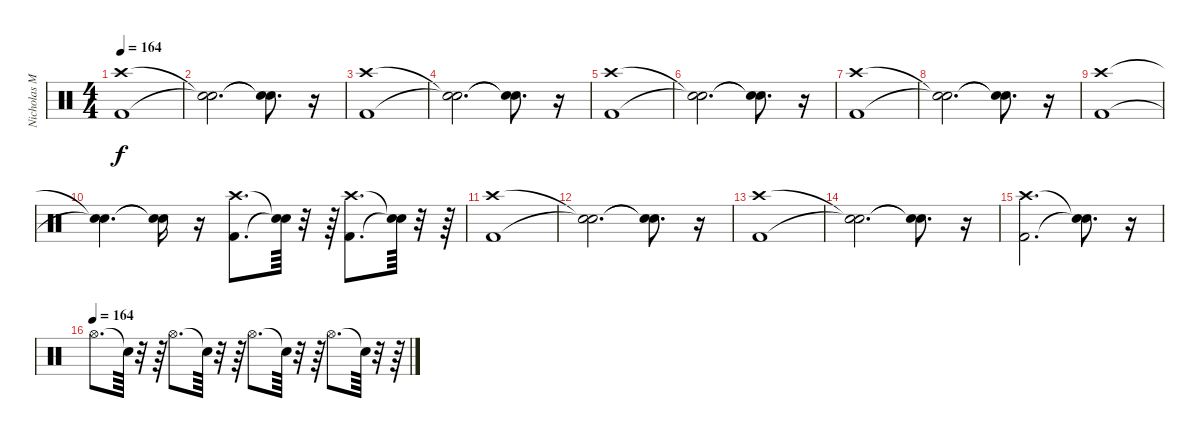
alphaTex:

\track ("Nicholas McBrain (Drums)" "Nicholas M") {instrument percussion}
\staff {score}
\articulation defaults
\ts (4 4)
\tempo 164
\tempo 132
\tempo 164
\clef neutral
\ks c
("Kick (hit) 2" "Crash high (hit)").1{dy f} |
("Snare (hit)"{t} "Snare (hit)"{t}).2{d} ("Snare (hit)"{t} "Snare (hit)"{t}).8{d} r.16 |
("Kick (hit) 2" "Crash high (hit)").1 |
("Snare (hit)"{t} "Snare (hit)"{t}).2{d} ("Snare (hit)"{t} "Snare (hit)"{t}).8{d} r.16 |
("Kick (hit) 2" "Crash high (hit)").1 |
("Snare (hit)"{t} "Snare (hit)"{t}).2{d} ("Snare (hit)"{t} "Snare (hit)"{t}).8{d} r.16 |
("Kick (hit) 2" "Crash high (hit)").1 |
("Snare (hit)"{t} "Snare (hit)"{t}).2{d} ("Snare (hit)"{t} "Snare (hit)"{t}).8{d} r.16 |
("Kick (hit) 2" "Crash high (hit)").1 |
("Snare (hit)"{t} "Snare (hit)"{t}).4{d} ("Snare (hit)"{t} "Snare (hit)"{t}).16 r.16 ("Kick (hit) 2" "Crash high (hit)").8{d} ("Snare (hit)"{t} "Snare (hit)"{t}).64 r.32 r.64 ("Kick (hit) 2" "Crash high (hit)").8{d} ("Snare (hit)"{t} "Snare (hit)"{t}).64 r.32 r.64 |
("Kick (hit) 2" "Crash high (hit)").1 |
("Snare (hit)"{t} "Snare (hit)"{t}).2{d} ("Snare (hit)"{t} "Snare (hit)"{t}).8{d} r.16 |
("Kick (hit) 2" "Crash high (hit)").1 |
("Snare (hit)"{t} "Snare (hit)"{t}).2{d} ("Snare (hit)"{t} "Snare (hit)"{t}).8{d} r.16 |
("Kick (hit) 2" "Crash high (hit)").2{d} ("Snare (hit)"{t} "Snare (hit)"{t}).8{d} r.16 |
\tempo (164)
"Hi-Hat (open)".8{d} "Snare (hit)"{t}.64 r.32 r.64 "Hi-Hat (open)".8{d} "Snare (hit)"{t}.64 r.32 r.64 "Hi-Hat (open)".8{d} "Snare (hit)"{t}.64 r.32 r.64 "Hi-Hat (open)".8{d} "Snare (hit)"{t}.64 r.32 r.64
